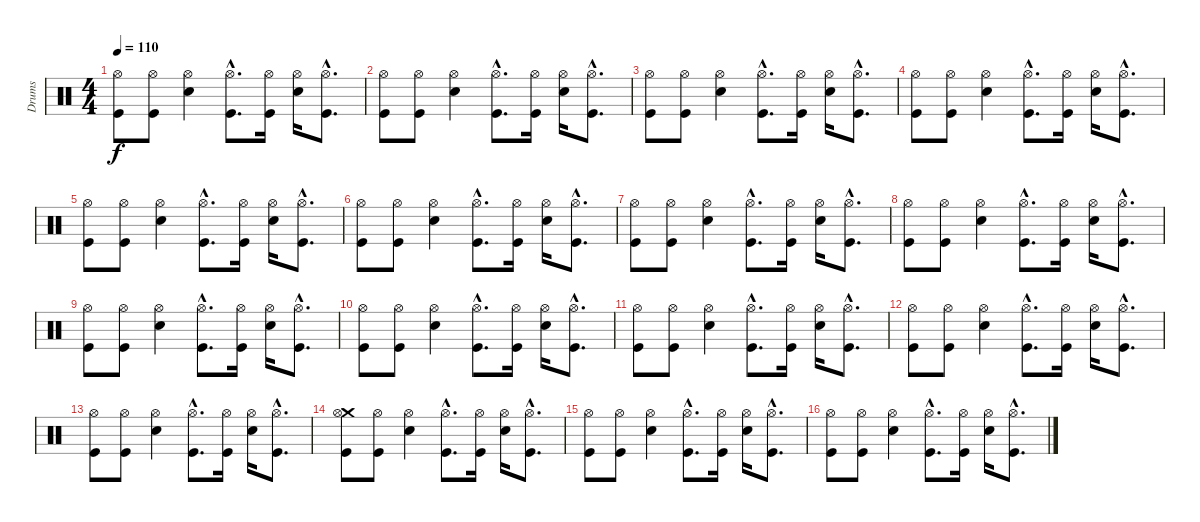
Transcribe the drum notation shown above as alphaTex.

\track ("Drums" "Drums") {instrument percussion}
\staff {score}
\articulation defaults
\ts (4 4)
\tempo 110
\clef neutral
\ks c
("Hi-Hat (open)" "Kick (hit)").8{dy f} ("Hi-Hat (open)" "Kick (hit)").8 ("Hi-Hat (open)" "Snare (hit) 2").4 ("Hi-Hat (open)"{hac} "Kick (hit)"{hac}).8{d} ("Hi-Hat (open)" "Kick (hit)").16 ("Hi-Hat (open)" "Snare (hit) 2").16 ("Hi-Hat (open)"{hac} "Kick (hit)"{hac}).8{d} |
("Hi-Hat (open)" "Kick (hit)").8 ("Hi-Hat (open)" "Kick (hit)").8 ("Hi-Hat (open)" "Snare (hit) 2").4 ("Hi-Hat (open)"{hac} "Kick (hit)"{hac}).8{d} ("Hi-Hat (open)" "Kick (hit)").16 ("Hi-Hat (open)" "Snare (hit) 2").16 ("Hi-Hat (open)"{hac} "Kick (hit)"{hac}).8{d} |
("Hi-Hat (open)" "Kick (hit)").8 ("Hi-Hat (open)" "Kick (hit)").8 ("Hi-Hat (open)" "Snare (hit) 2").4 ("Hi-Hat (open)"{hac} "Kick (hit)"{hac}).8{d} ("Hi-Hat (open)" "Kick (hit)").16 ("Hi-Hat (open)" "Snare (hit) 2").16 ("Hi-Hat (open)"{hac} "Kick (hit)"{hac}).8{d} |
("Hi-Hat (open)" "Kick (hit)").8 ("Hi-Hat (open)" "Kick (hit)").8 ("Hi-Hat (open)" "Snare (hit) 2").4 ("Hi-Hat (open)"{hac} "Kick (hit)"{hac}).8{d} ("Hi-Hat (open)" "Kick (hit)").16 ("Hi-Hat (open)" "Snare (hit) 2").16 ("Hi-Hat (open)"{hac} "Kick (hit)"{hac}).8{d} |
("Hi-Hat (open)" "Kick (hit)").8 ("Hi-Hat (open)" "Kick (hit)").8 ("Hi-Hat (open)" "Snare (hit) 2").4 ("Hi-Hat (open)"{hac} "Kick (hit)"{hac}).8{d} ("Hi-Hat (open)" "Kick (hit)").16 ("Hi-Hat (open)" "Snare (hit) 2").16 ("Hi-Hat (open)"{hac} "Kick (hit)"{hac}).8{d} |
("Hi-Hat (open)" "Kick (hit)").8 ("Hi-Hat (open)" "Kick (hit)").8 ("Hi-Hat (open)" "Snare (hit) 2").4 ("Hi-Hat (open)"{hac} "Kick (hit)"{hac}).8{d} ("Hi-Hat (open)" "Kick (hit)").16 ("Hi-Hat (open)" "Snare (hit) 2").16 ("Hi-Hat (open)"{hac} "Kick (hit)"{hac}).8{d} |
("Hi-Hat (open)" "Kick (hit)").8 ("Hi-Hat (open)" "Kick (hit)").8 ("Hi-Hat (open)" "Snare (hit) 2").4 ("Hi-Hat (open)"{hac} "Kick (hit)"{hac}).8{d} ("Hi-Hat (open)" "Kick (hit)").16 ("Hi-Hat (open)" "Snare (hit) 2").16 ("Hi-Hat (open)"{hac} "Kick (hit)"{hac}).8{d} |
("Hi-Hat (open)" "Kick (hit)").8 ("Hi-Hat (open)" "Kick (hit)").8 ("Hi-Hat (open)" "Snare (hit) 2").4 ("Hi-Hat (open)"{hac} "Kick (hit)"{hac}).8{d} ("Hi-Hat (open)" "Kick (hit)").16 ("Hi-Hat (open)" "Snare (hit) 2").16 ("Hi-Hat (open)"{hac} "Kick (hit)"{hac}).8{d} |
("Hi-Hat (open)" "Kick (hit)").8 ("Hi-Hat (open)" "Kick (hit)").8 ("Hi-Hat (open)" "Snare (hit) 2").4 ("Hi-Hat (open)"{hac} "Kick (hit)"{hac}).8{d} ("Hi-Hat (open)" "Kick (hit)").16 ("Hi-Hat (open)" "Snare (hit) 2").16 ("Hi-Hat (open)"{hac} "Kick (hit)"{hac}).8{d} |
("Hi-Hat (open)" "Kick (hit)").8 ("Hi-Hat (open)" "Kick (hit)").8 ("Hi-Hat (open)" "Snare (hit) 2").4 ("Hi-Hat (open)"{hac} "Kick (hit)"{hac}).8{d} ("Hi-Hat (open)" "Kick (hit)").16 ("Hi-Hat (open)" "Snare (hit) 2").16 ("Hi-Hat (open)"{hac} "Kick (hit)"{hac}).8{d} |
("Hi-Hat (open)" "Kick (hit)").8 ("Hi-Hat (open)" "Kick (hit)").8 ("Hi-Hat (open)" "Snare (hit) 2").4 ("Hi-Hat (open)"{hac} "Kick (hit)"{hac}).8{d} ("Hi-Hat (open)" "Kick (hit)").16 ("Hi-Hat (open)" "Snare (hit) 2").16 ("Hi-Hat (open)"{hac} "Kick (hit)"{hac}).8{d} |
("Hi-Hat (open)" "Kick (hit)").8 ("Hi-Hat (open)" "Kick (hit)").8 ("Hi-Hat (open)" "Snare (hit) 2").4 ("Hi-Hat (open)"{hac} "Kick (hit)"{hac}).8{d} ("Hi-Hat (open)" "Kick (hit)").16 ("Hi-Hat (open)" "Snare (hit) 2").16 ("Hi-Hat (open)"{hac} "Kick (hit)"{hac}).8{d} |
("Hi-Hat (open)" "Kick (hit)").8 ("Hi-Hat (open)" "Kick (hit)").8 ("Hi-Hat (open)" "Snare (hit) 2").4 ("Hi-Hat (open)"{hac} "Kick (hit)"{hac}).8{d} ("Hi-Hat (open)" "Kick (hit)").16 ("Hi-Hat (open)" "Snare (hit) 2").16 ("Hi-Hat (open)"{hac} "Kick (hit)"{hac}).8{d} |
("Crash medium (hit)" "Hi-Hat (open)" "Kick (hit)").8 ("Hi-Hat (open)" "Kick (hit)").8 ("Hi-Hat (open)" "Snare (hit) 2").4 ("Hi-Hat (open)"{hac} "Kick (hit)"{hac}).8{d} ("Hi-Hat (open)" "Kick (hit)").16 ("Hi-Hat (open)" "Snare (hit) 2").16 ("Hi-Hat (open)"{hac} "Kick (hit)"{hac}).8{d} |
("Hi-Hat (open)" "Kick (hit)").8 ("Hi-Hat (open)" "Kick (hit)").8 ("Hi-Hat (open)" "Snare (hit) 2").4 ("Hi-Hat (open)"{hac} "Kick (hit)"{hac}).8{d} ("Hi-Hat (open)" "Kick (hit)").16 ("Hi-Hat (open)" "Snare (hit) 2").16 ("Hi-Hat (open)"{hac} "Kick (hit)"{hac}).8{d} |
("Hi-Hat (open)" "Kick (hit)").8 ("Hi-Hat (open)" "Kick (hit)").8 ("Hi-Hat (open)" "Snare (hit) 2").4 ("Hi-Hat (open)"{hac} "Kick (hit)"{hac}).8{d} ("Hi-Hat (open)" "Kick (hit)").16 ("Hi-Hat (open)" "Snare (hit) 2").16 ("Hi-Hat (open)"{hac} "Kick (hit)"{hac}).8{d}
